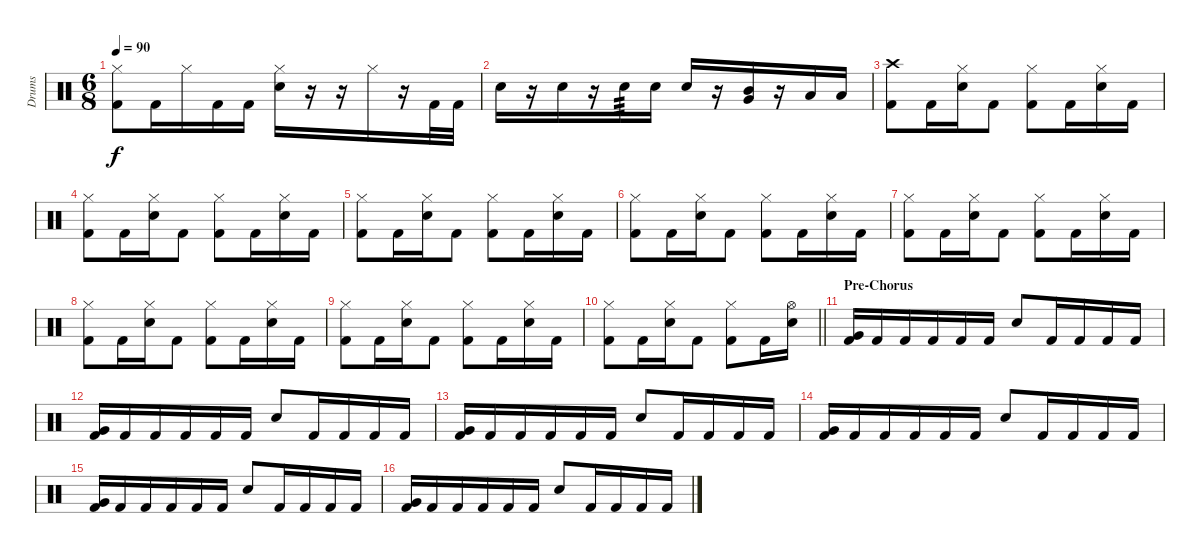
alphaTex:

\track ("Drums" "Drums") {instrument percussion}
\staff {score}
\articulation defaults
\ts (6 8)
\tempo 90
\clef neutral
\ks c
("Hi-Hat (closed)" "Kick (hit) 2").8{dy f} "Kick (hit) 2".16 "Hi-Hat (closed)".16 "Kick (hit) 2".16 "Kick (hit) 2".16 ("Hi-Hat (closed)" "Snare (hit) 2").16 r.16 r.16 "Hi-Hat (closed)".16 r.16 "Kick (hit) 2".32 "Kick (hit) 2".32 |
"Snare (hit) 2".16 r.16 "Snare (hit) 2".16 r.16 "Snare (hit) 2".16{tp 3} "Snare (hit) 2".16 "Snare (hit) 2".16 r.16 ("Mid Tom (hit)" "Very Low Tom (hit)").16 r.16 "Low Tom (hit)".16 "Low Tom (hit)".16 |
("Crash high (hit)" "Kick (hit) 2").8 "Kick (hit) 2".16 ("Hi-Hat (closed)" "Snare (hit) 2").16 "Kick (hit) 2".8 ("Hi-Hat (closed)" "Kick (hit) 2").8 "Kick (hit) 2".16 ("Hi-Hat (closed)" "Snare (hit) 2").16 "Kick (hit) 2".16 |
("Hi-Hat (closed)" "Kick (hit) 2").8 "Kick (hit) 2".16 ("Hi-Hat (closed)" "Snare (hit) 2").16 "Kick (hit) 2".8 ("Hi-Hat (closed)" "Kick (hit) 2").8 "Kick (hit) 2".16 ("Hi-Hat (closed)" "Snare (hit) 2").16 "Kick (hit) 2".16 |
("Hi-Hat (closed)" "Kick (hit) 2").8 "Kick (hit) 2".16 ("Hi-Hat (closed)" "Snare (hit) 2").16 "Kick (hit) 2".8 ("Hi-Hat (closed)" "Kick (hit) 2").8 "Kick (hit) 2".16 ("Hi-Hat (closed)" "Snare (hit) 2").16 "Kick (hit) 2".16 |
("Hi-Hat (closed)" "Kick (hit) 2").8 "Kick (hit) 2".16 ("Hi-Hat (closed)" "Snare (hit) 2").16 "Kick (hit) 2".8 ("Hi-Hat (closed)" "Kick (hit) 2").8 "Kick (hit) 2".16 ("Hi-Hat (closed)" "Snare (hit) 2").16 "Kick (hit) 2".16 |
("Hi-Hat (closed)" "Kick (hit) 2").8 "Kick (hit) 2".16 ("Hi-Hat (closed)" "Snare (hit) 2").16 "Kick (hit) 2".8 ("Hi-Hat (closed)" "Kick (hit) 2").8 "Kick (hit) 2".16 ("Hi-Hat (closed)" "Snare (hit) 2").16 "Kick (hit) 2".16 |
("Hi-Hat (closed)" "Kick (hit) 2").8 "Kick (hit) 2".16 ("Hi-Hat (closed)" "Snare (hit) 2").16 "Kick (hit) 2".8 ("Hi-Hat (closed)" "Kick (hit) 2").8 "Kick (hit) 2".16 ("Hi-Hat (closed)" "Snare (hit) 2").16 "Kick (hit) 2".16 |
("Hi-Hat (closed)" "Kick (hit) 2").8 "Kick (hit) 2".16 ("Hi-Hat (closed)" "Snare (hit) 2").16 "Kick (hit) 2".8 ("Hi-Hat (closed)" "Kick (hit) 2").8 "Kick (hit) 2".16 ("Hi-Hat (closed)" "Snare (hit) 2").16 "Kick (hit) 2".16 |
\barLineRight lightlight
("Hi-Hat (closed)" "Kick (hit) 2").8 "Kick (hit) 2".16 ("Hi-Hat (closed)" "Snare (hit) 2").16 "Kick (hit) 2".8 ("Hi-Hat (closed)" "Kick (hit) 2").8 "Kick (hit) 2".16 ("Hi-Hat (open)" "Snare (hit) 2").16 |
\section ("" "Pre-Chorus")
("Kick (hit) 2" "Very Low Tom (hit)").16 "Kick (hit) 2".16 "Kick (hit) 2".16 "Kick (hit) 2".16 "Kick (hit) 2".16 "Kick (hit) 2".16 "Snare (hit) 2".8 "Kick (hit) 2".16 "Kick (hit) 2".16 "Kick (hit) 2".16 "Kick (hit) 2".16 |
("Kick (hit) 2" "Very Low Tom (hit)").16 "Kick (hit) 2".16 "Kick (hit) 2".16 "Kick (hit) 2".16 "Kick (hit) 2".16 "Kick (hit) 2".16 "Snare (hit) 2".8 "Kick (hit) 2".16 "Kick (hit) 2".16 "Kick (hit) 2".16 "Kick (hit) 2".16 |
("Kick (hit) 2" "Very Low Tom (hit)").16 "Kick (hit) 2".16 "Kick (hit) 2".16 "Kick (hit) 2".16 "Kick (hit) 2".16 "Kick (hit) 2".16 "Snare (hit) 2".8 "Kick (hit) 2".16 "Kick (hit) 2".16 "Kick (hit) 2".16 "Kick (hit) 2".16 |
("Kick (hit) 2" "Very Low Tom (hit)").16 "Kick (hit) 2".16 "Kick (hit) 2".16 "Kick (hit) 2".16 "Kick (hit) 2".16 "Kick (hit) 2".16 "Snare (hit) 2".8 "Kick (hit) 2".16 "Kick (hit) 2".16 "Kick (hit) 2".16 "Kick (hit) 2".16 |
("Kick (hit) 2" "Very Low Tom (hit)").16 "Kick (hit) 2".16 "Kick (hit) 2".16 "Kick (hit) 2".16 "Kick (hit) 2".16 "Kick (hit) 2".16 "Snare (hit) 2".8 "Kick (hit) 2".16 "Kick (hit) 2".16 "Kick (hit) 2".16 "Kick (hit) 2".16 |
("Kick (hit) 2" "Very Low Tom (hit)").16 "Kick (hit) 2".16 "Kick (hit) 2".16 "Kick (hit) 2".16 "Kick (hit) 2".16 "Kick (hit) 2".16 "Snare (hit) 2".8 "Kick (hit) 2".16 "Kick (hit) 2".16 "Kick (hit) 2".16 "Kick (hit) 2".16
